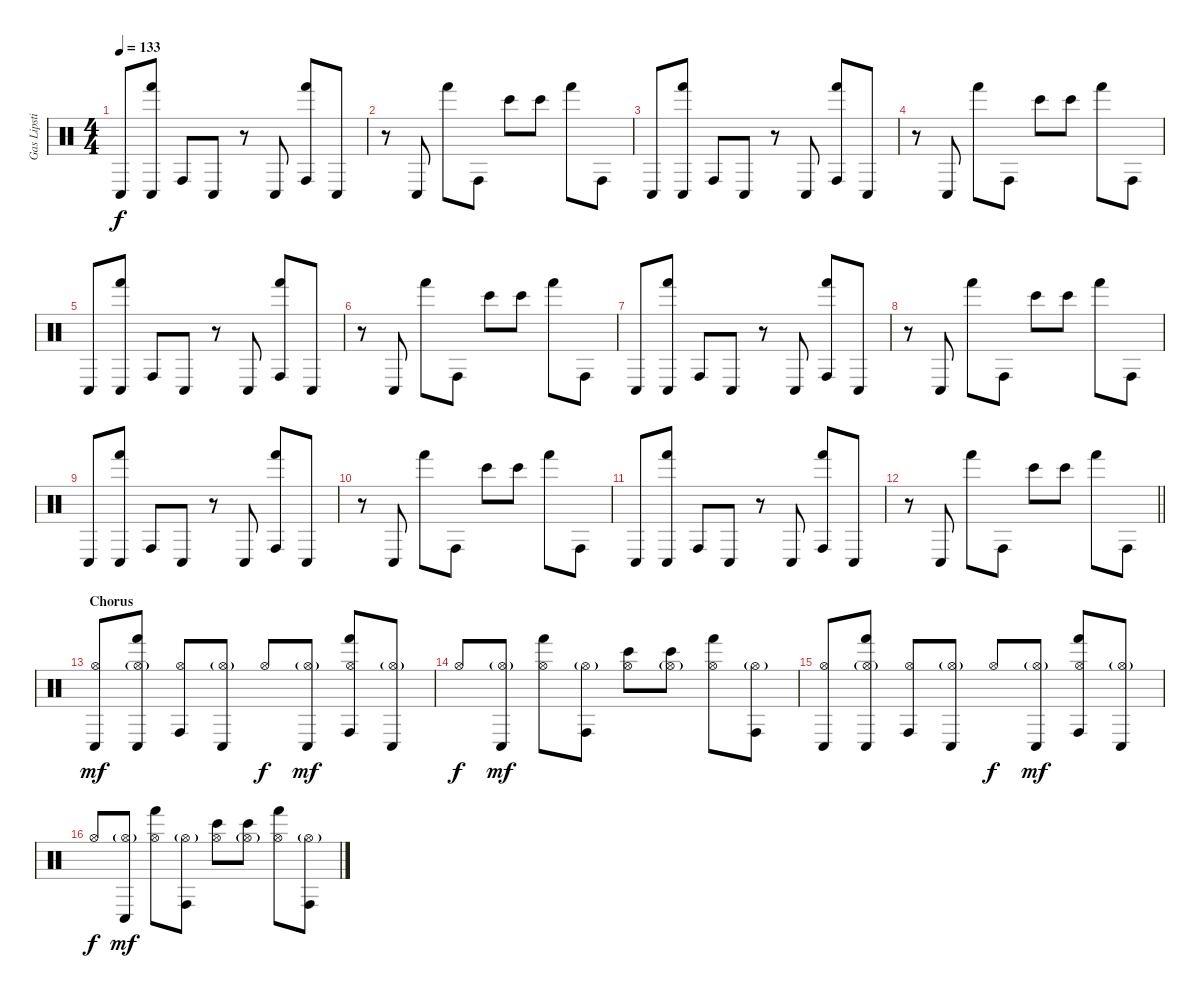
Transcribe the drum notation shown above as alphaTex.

\track ("Gas Lipstick (Drums)" "Gas Lipsti") {instrument percussion}
\staff {score}
\articulation defaults
\ts (4 4)
\tempo 133
\clef neutral
\ks c "Conga low (hit)".8{dy f}
("Hand (hit)" "Conga low (hit)").8 "Conga high (hit)".8 "Conga low (hit)".8 r.8 "Conga low (hit)".8 ("Hand (hit)" "Conga high (hit)").8 "Conga low (hit)".8 |
r.8 "Conga low (hit)".8 "Hand (hit)".8 "Conga high (hit)".8 "Bongo High (hit)".8 "Bongo High (hit)".8 "Hand (hit)".8 "Conga high (hit)".8 |
"Conga low (hit)".8 ("Hand (hit)" "Conga low (hit)").8 "Conga high (hit)".8 "Conga low (hit)".8 r.8 "Conga low (hit)".8 ("Hand (hit)" "Conga high (hit)").8 "Conga low (hit)".8 |
r.8 "Conga low (hit)".8 "Hand (hit)".8 "Conga high (hit)".8 "Bongo High (hit)".8 "Bongo High (hit)".8 "Hand (hit)".8 "Conga high (hit)".8 |
"Conga low (hit)".8 ("Hand (hit)" "Conga low (hit)").8 "Conga high (hit)".8 "Conga low (hit)".8 r.8 "Conga low (hit)".8 ("Hand (hit)" "Conga high (hit)").8 "Conga low (hit)".8 |
r.8 "Conga low (hit)".8 "Hand (hit)".8 "Conga high (hit)".8 "Bongo High (hit)".8 "Bongo High (hit)".8 "Hand (hit)".8 "Conga high (hit)".8 |
"Conga low (hit)".8 ("Hand (hit)" "Conga low (hit)").8 "Conga high (hit)".8 "Conga low (hit)".8 r.8 "Conga low (hit)".8 ("Hand (hit)" "Conga high (hit)").8 "Conga low (hit)".8 |
r.8 "Conga low (hit)".8 "Hand (hit)".8 "Conga high (hit)".8 "Bongo High (hit)".8 "Bongo High (hit)".8 "Hand (hit)".8 "Conga high (hit)".8 |
"Conga low (hit)".8 ("Hand (hit)" "Conga low (hit)").8 "Conga high (hit)".8 "Conga low (hit)".8 r.8 "Conga low (hit)".8 ("Hand (hit)" "Conga high (hit)").8 "Conga low (hit)".8 |
r.8 "Conga low (hit)".8 "Hand (hit)".8 "Conga high (hit)".8 "Bongo High (hit)".8 "Bongo High (hit)".8 "Hand (hit)".8 "Conga high (hit)".8 |
"Conga low (hit)".8 ("Hand (hit)" "Conga low (hit)").8 "Conga high (hit)".8 "Conga low (hit)".8 r.8 "Conga low (hit)".8 ("Hand (hit)" "Conga high (hit)").8 "Conga low (hit)".8 |
\barLineRight lightlight
r.8 "Conga low (hit)".8 "Hand (hit)".8 "Conga high (hit)".8 "Bongo High (hit)".8 "Bongo High (hit)".8 "Hand (hit)".8 "Conga high (hit)".8 |
\section ("" "Chorus")
("Hi-Hat (open)" "Conga low (hit)").8{dy mf} ("Hi-Hat (open)"{g} "Hand (hit)" "Conga low (hit)").8 ("Hi-Hat (open)" "Conga high (hit)").8 ("Hi-Hat (open)"{g} "Conga low (hit)").8 "Hi-Hat (open)".8{dy f} ("Hi-Hat (open)"{g} "Conga low (hit)").8{dy mf} ("Hi-Hat (open)" "Hand (hit)" "Conga high (hit)").8 ("Hi-Hat (open)"{g} "Conga low (hit)").8 |
"Hi-Hat (open)".8{dy f} ("Hi-Hat (open)"{g} "Conga low (hit)").8{dy mf} ("Hi-Hat (open)" "Hand (hit)").8 ("Hi-Hat (open)"{g} "Conga high (hit)").8 ("Hi-Hat (open)" "Bongo High (hit)").8 ("Hi-Hat (open)"{g} "Bongo High (hit)").8 ("Hi-Hat (open)" "Hand (hit)").8 ("Hi-Hat (open)"{g} "Conga high (hit)").8 |
("Hi-Hat (open)" "Conga low (hit)").8 ("Hi-Hat (open)"{g} "Hand (hit)" "Conga low (hit)").8 ("Hi-Hat (open)" "Conga high (hit)").8 ("Hi-Hat (open)"{g} "Conga low (hit)").8 "Hi-Hat (open)".8{dy f} ("Hi-Hat (open)"{g} "Conga low (hit)").8{dy mf} ("Hi-Hat (open)" "Hand (hit)" "Conga high (hit)").8 ("Hi-Hat (open)"{g} "Conga low (hit)").8 |
"Hi-Hat (open)".8{dy f} ("Hi-Hat (open)"{g} "Conga low (hit)").8{dy mf} ("Hi-Hat (open)" "Hand (hit)").8 ("Hi-Hat (open)"{g} "Conga high (hit)").8 ("Hi-Hat (open)" "Bongo High (hit)").8 ("Hi-Hat (open)"{g} "Bongo High (hit)").8 ("Hi-Hat (open)" "Hand (hit)").8 ("Hi-Hat (open)"{g} "Conga high (hit)").8
